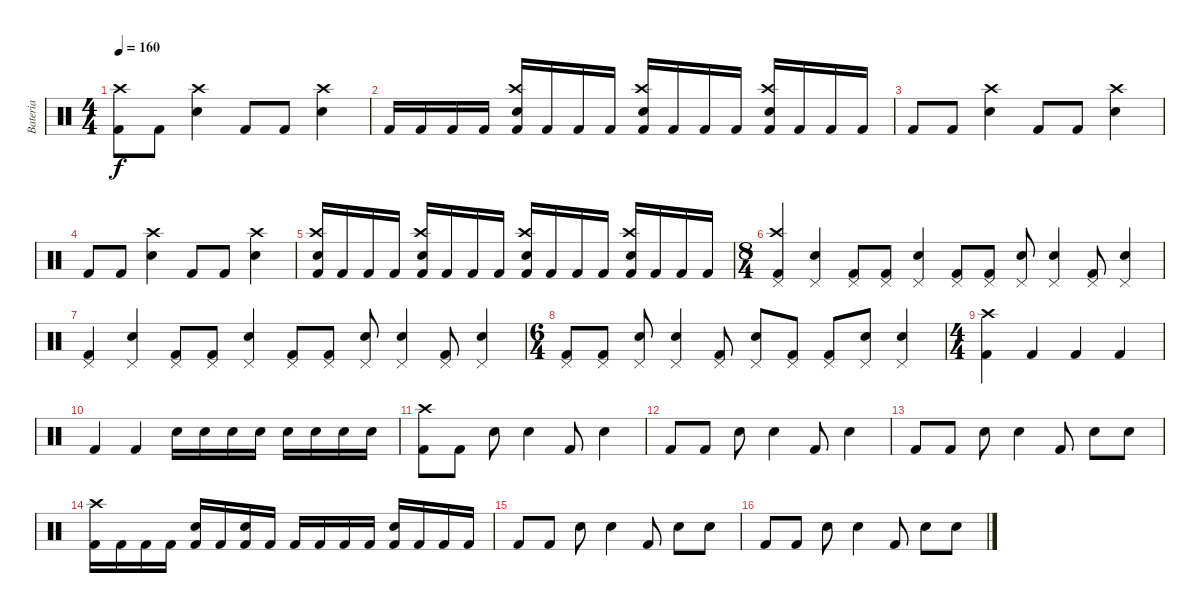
\track ("Bateria" "Bateria") {instrument percussion}
\staff {score}
\articulation defaults
\ts (4 4)
\tempo 160
\clef neutral
\ks c
("Kick (hit) 2" "Crash high (hit)").8{dy f} "Kick (hit) 2".8 ("Electric Snare (hit)" "Crash high (hit)").4 "Kick (hit) 2".8 "Kick (hit) 2".8 ("Electric Snare (hit)" "Crash high (hit)").4 |
"Kick (hit) 2".16 "Kick (hit) 2".16 "Kick (hit) 2".16 "Kick (hit) 2".16 ("Crash high (hit)" "Kick (hit) 2" "Electric Snare (hit)").16 "Kick (hit) 2".16 "Kick (hit) 2".16 "Kick (hit) 2".16 ("Crash high (hit)" "Kick (hit) 2" "Electric Snare (hit)").16 "Kick (hit) 2".16 "Kick (hit) 2".16 "Kick (hit) 2".16 ("Crash high (hit)" "Kick (hit) 2" "Electric Snare (hit)").16 "Kick (hit) 2".16 "Kick (hit) 2".16 "Kick (hit) 2".16 |
"Kick (hit) 2".8 "Kick (hit) 2".8 ("Electric Snare (hit)" "Crash high (hit)").4 "Kick (hit) 2".8 "Kick (hit) 2".8 ("Electric Snare (hit)" "Crash high (hit)").4 |
"Kick (hit) 2".8 "Kick (hit) 2".8 ("Electric Snare (hit)" "Crash high (hit)").4 "Kick (hit) 2".8 "Kick (hit) 2".8 ("Electric Snare (hit)" "Crash high (hit)").4 |
("Crash high (hit)" "Kick (hit) 2" "Electric Snare (hit)").16 "Kick (hit) 2".16 "Kick (hit) 2".16 "Kick (hit) 2".16 ("Crash high (hit)" "Kick (hit) 2" "Electric Snare (hit)").16 "Kick (hit) 2".16 "Kick (hit) 2".16 "Kick (hit) 2".16 ("Crash high (hit)" "Kick (hit) 2" "Electric Snare (hit)").16 "Kick (hit) 2".16 "Kick (hit) 2".16 "Kick (hit) 2".16 ("Crash high (hit)" "Kick (hit) 2" "Electric Snare (hit)").16 "Kick (hit) 2".16 "Kick (hit) 2".16 "Kick (hit) 2".16 |
\ts (8 4)
("Crash high (hit)" "Pedal Hi-Hat (hit)" "Kick (hit) 2").4 ("Pedal Hi-Hat (hit)" "Snare (hit) 2").4 ("Pedal Hi-Hat (hit)" "Kick (hit) 2").8 ("Pedal Hi-Hat (hit)" "Kick (hit) 2").8 ("Pedal Hi-Hat (hit)" "Snare (hit) 2").4 ("Pedal Hi-Hat (hit)" "Kick (hit) 2").8 ("Pedal Hi-Hat (hit)" "Kick (hit) 2").8 ("Pedal Hi-Hat (hit)" "Snare (hit) 2").8 ("Pedal Hi-Hat (hit)" "Snare (hit) 2").4 ("Pedal Hi-Hat (hit)" "Kick (hit) 2").8 ("Pedal Hi-Hat (hit)" "Snare (hit) 2").4 |
("Pedal Hi-Hat (hit)" "Kick (hit) 2").4 ("Pedal Hi-Hat (hit)" "Snare (hit) 2").4 ("Pedal Hi-Hat (hit)" "Kick (hit) 2").8 ("Pedal Hi-Hat (hit)" "Kick (hit) 2").8 ("Pedal Hi-Hat (hit)" "Snare (hit) 2").4 ("Pedal Hi-Hat (hit)" "Kick (hit) 2").8 ("Pedal Hi-Hat (hit)" "Kick (hit) 2").8 ("Pedal Hi-Hat (hit)" "Snare (hit) 2").8 ("Pedal Hi-Hat (hit)" "Snare (hit) 2").4 ("Pedal Hi-Hat (hit)" "Kick (hit) 2").8 ("Pedal Hi-Hat (hit)" "Snare (hit) 2").4 |
\ts (6 4)
("Pedal Hi-Hat (hit)" "Kick (hit) 2").8 ("Pedal Hi-Hat (hit)" "Kick (hit) 2").8 ("Pedal Hi-Hat (hit)" "Snare (hit) 2").8 ("Pedal Hi-Hat (hit)" "Snare (hit) 2").4 ("Pedal Hi-Hat (hit)" "Kick (hit) 2").8 ("Pedal Hi-Hat (hit)" "Snare (hit) 2").8 ("Pedal Hi-Hat (hit)" "Kick (hit) 2").8 ("Pedal Hi-Hat (hit)" "Kick (hit) 2").8 ("Pedal Hi-Hat (hit)" "Snare (hit) 2").8 ("Pedal Hi-Hat (hit)" "Snare (hit) 2").4 |
\ts (4 4)
("Kick (hit) 2" "Crash high (hit)").4 "Kick (hit) 2".4 "Kick (hit) 2".4 "Kick (hit) 2".4 |
"Kick (hit) 2".4 "Kick (hit) 2".4 "Electric Snare (hit)".16 "Electric Snare (hit)".16 "Electric Snare (hit)".16 "Electric Snare (hit)".16 "Electric Snare (hit)".16 "Electric Snare (hit)".16 "Electric Snare (hit)".16 "Electric Snare (hit)".16 |
("Kick (hit) 2" "Crash high (hit)").8 "Kick (hit) 2".8 "Electric Snare (hit)".8 "Electric Snare (hit)".4 "Kick (hit) 2".8 "Electric Snare (hit)".4 |
"Kick (hit) 2".8 "Kick (hit) 2".8 "Electric Snare (hit)".8 "Electric Snare (hit)".4 "Kick (hit) 2".8 "Electric Snare (hit)".4 |
"Kick (hit) 2".8 "Kick (hit) 2".8 "Electric Snare (hit)".8 "Electric Snare (hit)".4 "Kick (hit) 2".8 "Electric Snare (hit)".8 "Electric Snare (hit)".8 |
("Kick (hit) 2" "Crash high (hit)").16 "Kick (hit) 2".16 "Kick (hit) 2".16 "Kick (hit) 2".16 ("Kick (hit) 2" "Electric Snare (hit)").16 "Kick (hit) 2".16 ("Kick (hit) 2" "Electric Snare (hit)").16 "Kick (hit) 2".16 "Kick (hit) 2".16 "Kick (hit) 2".16 "Kick (hit) 2".16 "Kick (hit) 2".16 ("Kick (hit) 2" "Electric Snare (hit)").16 "Kick (hit) 2".16 "Kick (hit) 2".16 "Kick (hit) 2".16 |
"Kick (hit) 2".8 "Kick (hit) 2".8 "Electric Snare (hit)".8 "Electric Snare (hit)".4 "Kick (hit) 2".8 "Electric Snare (hit)".8 "Electric Snare (hit)".8 |
"Kick (hit) 2".8 "Kick (hit) 2".8 "Electric Snare (hit)".8 "Electric Snare (hit)".4 "Kick (hit) 2".8 "Electric Snare (hit)".8 "Electric Snare (hit)".8
